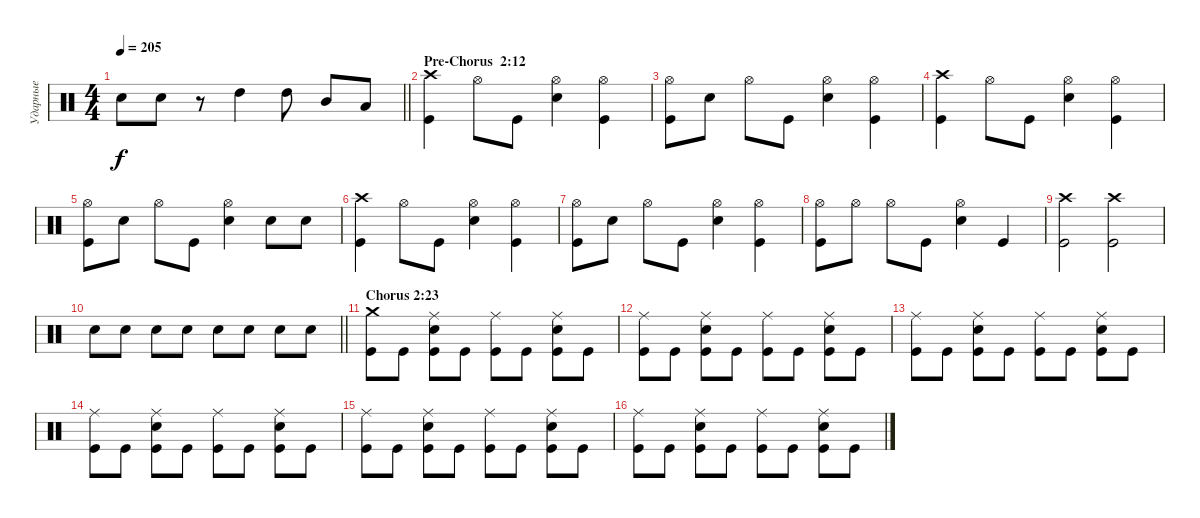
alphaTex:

\track ("Ударные" "Ударные") {instrument percussion}
\staff {score}
\articulation defaults
\ts (4 4)
\tempo 205
\clef neutral
\barLineRight lightlight
\ks c "Snare (hit) 2".8{dy f} "Snare (hit) 2".8
r.8 "High Tom (hit)".4 "High Tom (hit)".8 "Mid Tom (hit)".8 "Low Tom (hit)".8 |
\section ("" "Pre-Chorus  2:12")
("Crash high (hit)" "Kick (hit)").4 "Hi-Hat (open)".8 "Kick (hit)".8 ("Hi-Hat (open)" "Snare (hit) 2").4 ("Hi-Hat (open)" "Kick (hit)").4 |
("Hi-Hat (open)" "Kick (hit)").8 "Snare (hit) 2".8 "Hi-Hat (open)".8 "Kick (hit)".8 ("Hi-Hat (open)" "Snare (hit) 2").4 ("Hi-Hat (open)" "Kick (hit)").4 |
("Crash high (hit)" "Kick (hit)").4 "Hi-Hat (open)".8 "Kick (hit)".8 ("Hi-Hat (open)" "Snare (hit) 2").4 ("Hi-Hat (open)" "Kick (hit)").4 |
("Hi-Hat (open)" "Kick (hit)").8 "Snare (hit) 2".8 "Hi-Hat (open)".8 "Kick (hit)".8 ("Hi-Hat (open)" "Snare (hit) 2").4 "Snare (hit) 2".8 "Snare (hit) 2".8 |
("Crash high (hit)" "Kick (hit)").4 "Hi-Hat (open)".8 "Kick (hit)".8 ("Hi-Hat (open)" "Snare (hit) 2").4 ("Hi-Hat (open)" "Kick (hit)").4 |
("Hi-Hat (open)" "Kick (hit)").8 "Snare (hit) 2".8 "Hi-Hat (open)".8 "Kick (hit)".8 ("Hi-Hat (open)" "Snare (hit) 2").4 ("Hi-Hat (open)" "Kick (hit)").4 |
("Hi-Hat (open)" "Kick (hit)").8 "Hi-Hat (open)".8 "Hi-Hat (open)".8 "Kick (hit)".8 ("Hi-Hat (open)" "Snare (hit) 2").4 "Kick (hit)".4 |
("Crash high (hit)" "Kick (hit)").2 ("Crash high (hit)" "Kick (hit)").2 |
\barLineRight lightlight "Snare (hit) 2".8 "Snare (hit) 2".8 "Snare (hit) 2".8 "Snare (hit) 2".8 "Snare (hit) 2".8 "Snare (hit) 2".8 "Snare (hit) 2".8 "Snare (hit) 2".8
|
\section ("" "Chorus 2:23")
("Crash medium (hit)" "Kick (hit)").8 "Kick (hit)".8 ("Ride (middle)" "Snare (hit) 2" "Kick (hit)").8 "Kick (hit)".8 ("Ride (middle)" "Kick (hit)").8 "Kick (hit)".8 ("Ride (middle)" "Snare (hit) 2" "Kick (hit)").8 "Kick (hit)".8 |
("Ride (middle)" "Kick (hit)").8 "Kick (hit)".8 ("Ride (middle)" "Snare (hit) 2" "Kick (hit)").8 "Kick (hit)".8 ("Ride (middle)" "Kick (hit)").8 "Kick (hit)".8 ("Ride (middle)" "Snare (hit) 2" "Kick (hit)").8 "Kick (hit)".8 |
("Ride (middle)" "Kick (hit)").8 "Kick (hit)".8 ("Ride (middle)" "Snare (hit) 2" "Kick (hit)").8 "Kick (hit)".8 ("Ride (middle)" "Kick (hit)").8 "Kick (hit)".8 ("Ride (middle)" "Snare (hit) 2" "Kick (hit)").8 "Kick (hit)".8 |
("Ride (middle)" "Kick (hit)").8 "Kick (hit)".8 ("Ride (middle)" "Snare (hit) 2" "Kick (hit)").8 "Kick (hit)".8 ("Ride (middle)" "Kick (hit)").8 "Kick (hit)".8 ("Ride (middle)" "Snare (hit) 2" "Kick (hit)").8 "Kick (hit)".8 |
("Ride (middle)" "Kick (hit)").8 "Kick (hit)".8 ("Ride (middle)" "Snare (hit) 2" "Kick (hit)").8 "Kick (hit)".8 ("Ride (middle)" "Kick (hit)").8 "Kick (hit)".8 ("Ride (middle)" "Snare (hit) 2" "Kick (hit)").8 "Kick (hit)".8 |
("Ride (middle)" "Kick (hit)").8 "Kick (hit)".8 ("Ride (middle)" "Snare (hit) 2" "Kick (hit)").8 "Kick (hit)".8 ("Ride (middle)" "Kick (hit)").8 "Kick (hit)".8 ("Ride (middle)" "Snare (hit) 2" "Kick (hit)").8 "Kick (hit)".8
